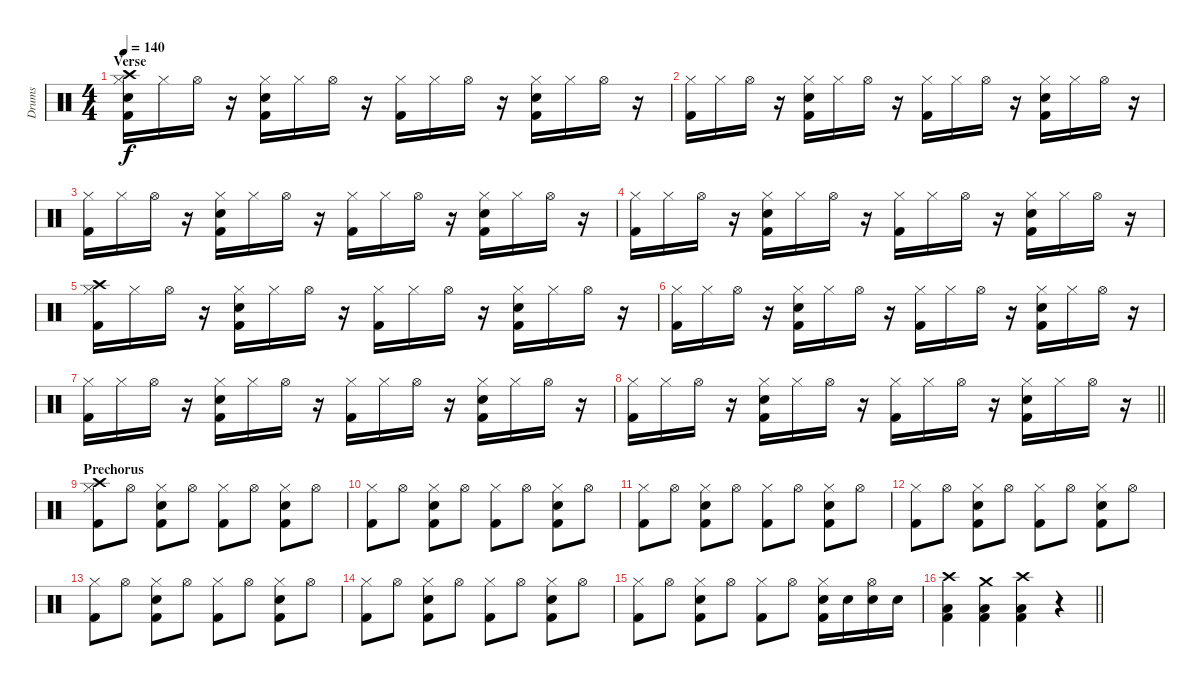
\track ("Drums" "Drums") {instrument percussion}
\staff {score}
\articulation defaults
\ts (4 4)
\section ("" "Verse")
\tempo 140
\clef neutral
\ks c
("Crash high (hit)" "Hi-Hat (closed)" "Hand Clap (hit)" "Kick (hit) 2").16{dy f} "Hi-Hat (closed)".16 "Hi-Hat (open)".16 r.16 ("Hi-Hat (closed)" "Snare (hit) 2" "Kick (hit) 2").16 "Hi-Hat (closed)".16 "Hi-Hat (open)".16 r.16 ("Hi-Hat (closed)" "Kick (hit) 2").16 "Hi-Hat (closed)".16 "Hi-Hat (open)".16 r.16 ("Hi-Hat (closed)" "Snare (hit) 2" "Kick (hit) 2").16 "Hi-Hat (closed)".16 "Hi-Hat (open)".16 r.16 |
("Hi-Hat (closed)" "Kick (hit) 2").16 "Hi-Hat (closed)".16 "Hi-Hat (open)".16 r.16 ("Hi-Hat (closed)" "Snare (hit) 2" "Kick (hit) 2").16 "Hi-Hat (closed)".16 "Hi-Hat (open)".16 r.16 ("Hi-Hat (closed)" "Kick (hit) 2").16 "Hi-Hat (closed)".16 "Hi-Hat (open)".16 r.16 ("Hi-Hat (closed)" "Snare (hit) 2" "Kick (hit) 2").16 "Hi-Hat (closed)".16 "Hi-Hat (open)".16 r.16 |
("Hi-Hat (closed)" "Kick (hit) 2").16 "Hi-Hat (closed)".16 "Hi-Hat (open)".16 r.16 ("Hi-Hat (closed)" "Snare (hit) 2" "Kick (hit) 2").16 "Hi-Hat (closed)".16 "Hi-Hat (open)".16 r.16 ("Hi-Hat (closed)" "Kick (hit) 2").16 "Hi-Hat (closed)".16 "Hi-Hat (open)".16 r.16 ("Hi-Hat (closed)" "Snare (hit) 2" "Kick (hit) 2").16 "Hi-Hat (closed)".16 "Hi-Hat (open)".16 r.16 |
("Hi-Hat (closed)" "Kick (hit) 2").16 "Hi-Hat (closed)".16 "Hi-Hat (open)".16 r.16 ("Hi-Hat (closed)" "Snare (hit) 2" "Kick (hit) 2").16 "Hi-Hat (closed)".16 "Hi-Hat (open)".16 r.16 ("Hi-Hat (closed)" "Kick (hit) 2").16 "Hi-Hat (closed)".16 "Hi-Hat (open)".16 r.16 ("Hi-Hat (closed)" "Snare (hit) 2" "Kick (hit) 2").16 "Hi-Hat (closed)".16 "Hi-Hat (open)".16 r.16 |
("Crash high (hit)" "Hi-Hat (closed)" "Kick (hit) 2").16 "Hi-Hat (closed)".16 "Hi-Hat (open)".16 r.16 ("Hi-Hat (closed)" "Snare (hit) 2" "Kick (hit) 2").16 "Hi-Hat (closed)".16 "Hi-Hat (open)".16 r.16 ("Hi-Hat (closed)" "Kick (hit) 2").16 "Hi-Hat (closed)".16 "Hi-Hat (open)".16 r.16 ("Hi-Hat (closed)" "Snare (hit) 2" "Kick (hit) 2").16 "Hi-Hat (closed)".16 "Hi-Hat (open)".16 r.16 |
("Hi-Hat (closed)" "Kick (hit) 2").16 "Hi-Hat (closed)".16 "Hi-Hat (open)".16 r.16 ("Hi-Hat (closed)" "Snare (hit) 2" "Kick (hit) 2").16 "Hi-Hat (closed)".16 "Hi-Hat (open)".16 r.16 ("Hi-Hat (closed)" "Kick (hit) 2").16 "Hi-Hat (closed)".16 "Hi-Hat (open)".16 r.16 ("Hi-Hat (closed)" "Snare (hit) 2" "Kick (hit) 2").16 "Hi-Hat (closed)".16 "Hi-Hat (open)".16 r.16 |
("Hi-Hat (closed)" "Kick (hit) 2").16 "Hi-Hat (closed)".16 "Hi-Hat (open)".16 r.16 ("Hi-Hat (closed)" "Snare (hit) 2" "Kick (hit) 2").16 "Hi-Hat (closed)".16 "Hi-Hat (open)".16 r.16 ("Hi-Hat (closed)" "Kick (hit) 2").16 "Hi-Hat (closed)".16 "Hi-Hat (open)".16 r.16 ("Hi-Hat (closed)" "Snare (hit) 2" "Kick (hit) 2").16 "Hi-Hat (closed)".16 "Hi-Hat (open)".16 r.16 |
\barLineRight lightlight
("Hi-Hat (closed)" "Kick (hit) 2").16 "Hi-Hat (closed)".16 "Hi-Hat (open)".16 r.16 ("Hi-Hat (closed)" "Snare (hit) 2" "Kick (hit) 2").16 "Hi-Hat (closed)".16 "Hi-Hat (open)".16 r.16 ("Hi-Hat (closed)" "Kick (hit) 2").16 "Hi-Hat (closed)".16 "Hi-Hat (open)".16 r.16 ("Hi-Hat (closed)" "Snare (hit) 2" "Kick (hit) 2").16 "Hi-Hat (closed)".16 "Hi-Hat (open)".16 r.16 |
\section ("" "Prechorus")
("Crash high (hit)" "Hi-Hat (closed)" "Kick (hit) 2").8 "Hi-Hat (open)".8 ("Hi-Hat (closed)" "Snare (hit) 2" "Kick (hit) 2").8 "Hi-Hat (open)".8 ("Hi-Hat (closed)" "Kick (hit) 2").8 "Hi-Hat (open)".8 ("Hi-Hat (closed)" "Snare (hit) 2" "Kick (hit) 2").8 "Hi-Hat (open)".8 |
("Hi-Hat (closed)" "Kick (hit) 2").8 "Hi-Hat (open)".8 ("Hi-Hat (closed)" "Snare (hit) 2" "Kick (hit) 2").8 "Hi-Hat (open)".8 ("Hi-Hat (closed)" "Kick (hit) 2").8 "Hi-Hat (open)".8 ("Hi-Hat (closed)" "Snare (hit) 2" "Kick (hit) 2").8 "Hi-Hat (open)".8 |
("Hi-Hat (closed)" "Kick (hit) 2").8 "Hi-Hat (open)".8 ("Hi-Hat (closed)" "Snare (hit) 2" "Kick (hit) 2").8 "Hi-Hat (open)".8 ("Hi-Hat (closed)" "Kick (hit) 2").8 "Hi-Hat (open)".8 ("Hi-Hat (closed)" "Snare (hit) 2" "Kick (hit) 2").8 "Hi-Hat (open)".8 |
("Hi-Hat (closed)" "Kick (hit) 2").8 "Hi-Hat (open)".8 ("Hi-Hat (closed)" "Snare (hit) 2" "Kick (hit) 2").8 "Hi-Hat (open)".8 ("Hi-Hat (closed)" "Kick (hit) 2").8 "Hi-Hat (open)".8 ("Hi-Hat (closed)" "Snare (hit) 2" "Kick (hit) 2").8 "Hi-Hat (open)".8 |
("Hi-Hat (closed)" "Kick (hit) 2").8 "Hi-Hat (open)".8 ("Hi-Hat (closed)" "Snare (hit) 2" "Kick (hit) 2").8 "Hi-Hat (open)".8 ("Hi-Hat (closed)" "Kick (hit) 2").8 "Hi-Hat (open)".8 ("Hi-Hat (closed)" "Snare (hit) 2" "Kick (hit) 2").8 "Hi-Hat (open)".8 |
("Hi-Hat (closed)" "Kick (hit) 2").8 "Hi-Hat (open)".8 ("Hi-Hat (closed)" "Snare (hit) 2" "Kick (hit) 2").8 "Hi-Hat (open)".8 ("Hi-Hat (closed)" "Kick (hit) 2").8 "Hi-Hat (open)".8 ("Hi-Hat (closed)" "Snare (hit) 2" "Kick (hit) 2").8 "Hi-Hat (open)".8 |
("Hi-Hat (closed)" "Kick (hit) 2").8 "Hi-Hat (open)".8 ("Hi-Hat (closed)" "Snare (hit) 2" "Kick (hit) 2").8 "Hi-Hat (open)".8 ("Hi-Hat (closed)" "Kick (hit) 2").8 "Hi-Hat (open)".8 ("Hi-Hat (closed)" "Snare (hit) 2" "Kick (hit) 2").16 "Snare (hit) 2".16 ("Hi-Hat (open)" "Snare (hit) 2").16 "Snare (hit) 2".16 |
\barLineRight lightlight
("Crash high (hit)" "Low Floor Tom (hit)" "Kick (hit) 2").4 ("Crash medium (hit)" "Low Floor Tom (hit)" "Kick (hit) 2").4 ("Crash high (hit)" "Low Floor Tom (hit)" "Kick (hit) 2").4 r.4
